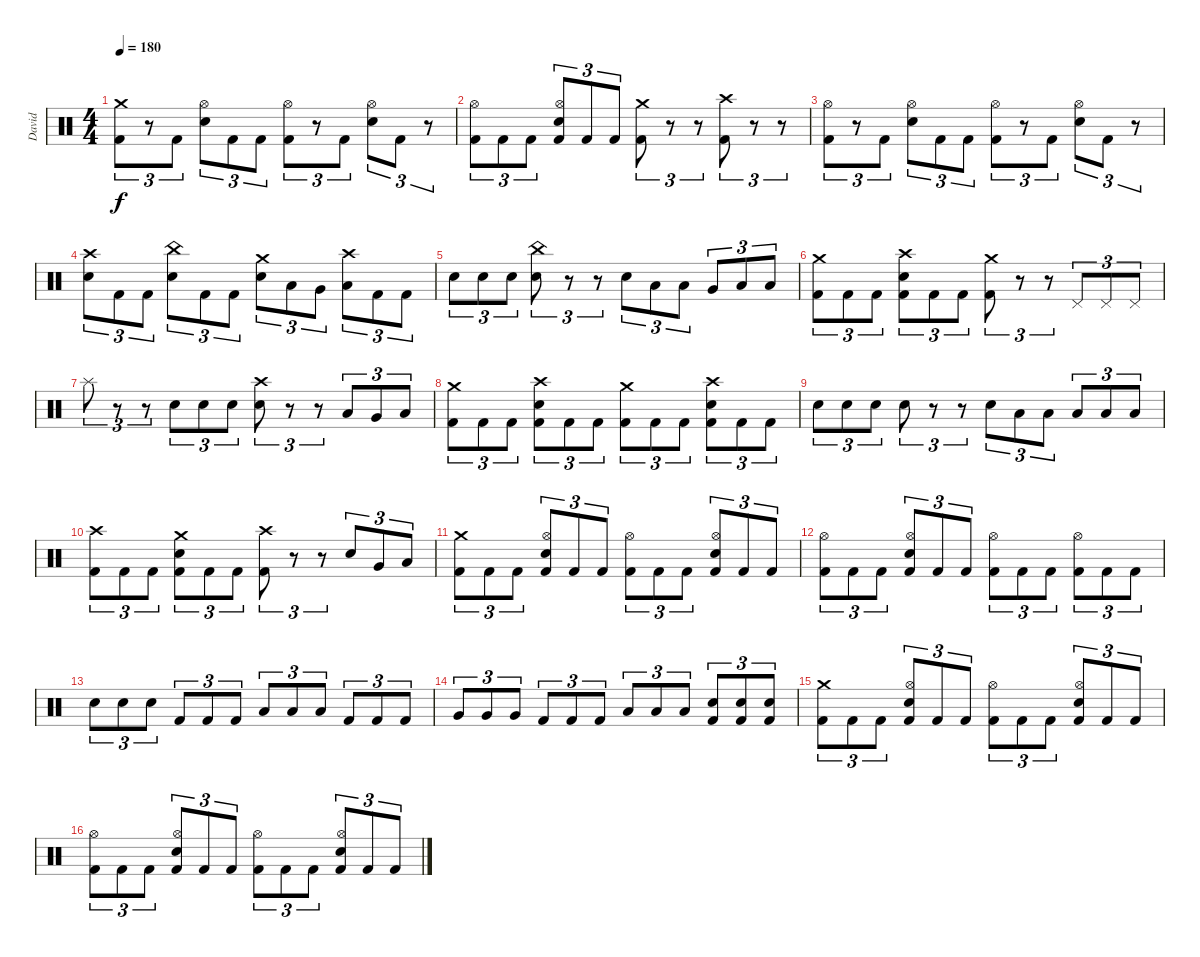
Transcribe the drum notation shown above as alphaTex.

\track ("David" "David") {instrument percussion}
\staff {score}
\articulation defaults
\ts (4 4)
\tempo 180
\clef neutral
\ks c
("Crash medium (hit)" "Kick (hit) 2").8{tu (3 2) dy f} r.8{tu (3 2)} "Kick (hit) 2".8{tu (3 2)} ("Hi-Hat (open)" "Electric Snare (hit)").8{tu (3 2)} "Kick (hit) 2".8{tu (3 2)} "Kick (hit) 2".8{tu (3 2)} ("Hi-Hat (open)" "Kick (hit) 2").8{tu (3 2)} r.8{tu (3 2)} "Kick (hit) 2".8{tu (3 2)} ("Hi-Hat (open)" "Electric Snare (hit)").8{tu (3 2)} "Kick (hit) 2".8{tu (3 2)} r.8{tu (3 2)} |
("Hi-Hat (open)" "Kick (hit) 2").8{tu (3 2)} "Kick (hit) 2".8{tu (3 2)} "Kick (hit) 2".8{tu (3 2)} ("Hi-Hat (open)" "Electric Snare (hit)" "Kick (hit) 2").8{tu (3 2)} "Kick (hit) 2".8{tu (3 2)} "Kick (hit) 2".8{tu (3 2)} ("Crash medium (hit)" "Kick (hit) 2").8{tu (3 2)} r.8{tu (3 2)} r.8{tu (3 2)} ("Crash high (hit)" "Kick (hit) 2").8{tu (3 2)} r.8{tu (3 2)} r.8{tu (3 2)} |
("Hi-Hat (open)" "Kick (hit) 2").8{tu (3 2)} r.8{tu (3 2)} "Kick (hit) 2".8{tu (3 2)} ("Hi-Hat (open)" "Electric Snare (hit)").8{tu (3 2)} "Kick (hit) 2".8{tu (3 2)} "Kick (hit) 2".8{tu (3 2)} ("Hi-Hat (open)" "Kick (hit) 2").8{tu (3 2)} r.8{tu (3 2)} "Kick (hit) 2".8{tu (3 2)} ("Hi-Hat (open)" "Electric Snare (hit)").8{tu (3 2)} "Kick (hit) 2".8{tu (3 2)} r.8{tu (3 2)} |
("Crash high (hit)" "Electric Snare (hit)").8{tu (3 2)} "Kick (hit) 2".8{tu (3 2)} "Kick (hit) 2".8{tu (3 2)} ("China (hit)" "Electric Snare (hit)").8{tu (3 2)} "Kick (hit) 2".8{tu (3 2)} "Kick (hit) 2".8{tu (3 2)} ("Crash medium (hit)" "Electric Snare (hit)").8{tu (3 2)} "Low Tom (hit)".8{tu (3 2)} "Very Low Tom (hit)".8{tu (3 2)} ("Crash high (hit)" "Low Floor Tom (hit)").8{tu (3 2)} "Kick (hit) 2".8{tu (3 2)} "Kick (hit) 2".8{tu (3 2)} |
"Electric Snare (hit)".8{tu (3 2)} "Electric Snare (hit)".8{tu (3 2)} "Electric Snare (hit)".8{tu (3 2)} ("China (hit)" "Electric Snare (hit)").8{tu (3 2)} r.8{tu (3 2)} r.8{tu (3 2)} "Electric Snare (hit)".8{tu (3 2)} "Low Tom (hit)".8{tu (3 2)} "Low Tom (hit)".8{tu (3 2)} "Very Low Tom (hit)".8{tu (3 2)} "Low Floor Tom (hit)".8{tu (3 2)} "Low Floor Tom (hit)".8{tu (3 2)} |
("Crash medium (hit)" "Kick (hit) 2").8{tu (3 2)} "Kick (hit) 2".8{tu (3 2)} "Kick (hit) 2".8{tu (3 2)} ("Crash high (hit)" "Electric Snare (hit)" "Kick (hit) 2").8{tu (3 2)} "Kick (hit) 2".8{tu (3 2)} "Kick (hit) 2".8{tu (3 2)} ("Crash medium (hit)" "Kick (hit) 2").8{tu (3 2)} r.8{tu (3 2)} r.8{tu (3 2)} "Pedal Hi-Hat (hit)".8{tu (3 2)} "Pedal Hi-Hat (hit)".8{tu (3 2)} "Pedal Hi-Hat (hit)".8{tu (3 2)} |
"Splash (hit)".8{tu (3 2)} r.8{tu (3 2)} r.8{tu (3 2)} "Electric Snare (hit)".8{tu (3 2)} "Electric Snare (hit)".8{tu (3 2)} "Electric Snare (hit)".8{tu (3 2)} ("Crash high (hit)" "Electric Snare (hit)").8{tu (3 2)} r.8{tu (3 2)} r.8{tu (3 2)} "Low Tom (hit)".8{tu (3 2)} "Very Low Tom (hit)".8{tu (3 2)} "Low Floor Tom (hit)".8{tu (3 2)} |
("Crash medium (hit)" "Kick (hit) 2").8{tu (3 2)} "Kick (hit) 2".8{tu (3 2)} "Kick (hit) 2".8{tu (3 2)} ("Crash high (hit)" "Electric Snare (hit)" "Kick (hit) 2").8{tu (3 2)} "Kick (hit) 2".8{tu (3 2)} "Kick (hit) 2".8{tu (3 2)} ("Crash medium (hit)" "Kick (hit) 2").8{tu (3 2)} "Kick (hit) 2".8{tu (3 2)} "Kick (hit) 2".8{tu (3 2)} ("Crash high (hit)" "Electric Snare (hit)" "Kick (hit) 2").8{tu (3 2)} "Kick (hit) 2".8{tu (3 2)} "Kick (hit) 2".8{tu (3 2)} |
"Electric Snare (hit)".8{tu (3 2)} "Electric Snare (hit)".8{tu (3 2)} "Electric Snare (hit)".8{tu (3 2)} "Electric Snare (hit)".8{tu (3 2)} r.8{tu (3 2)} r.8{tu (3 2)} "Electric Snare (hit)".8{tu (3 2)} "Low Tom (hit)".8{tu (3 2)} "Low Tom (hit)".8{tu (3 2)} "Low Tom (hit)".8{tu (3 2)} "Low Floor Tom (hit)".8{tu (3 2)} "Low Floor Tom (hit)".8{tu (3 2)} |
("Crash high (hit)" "Kick (hit) 2").8{tu (3 2)} "Kick (hit) 2".8{tu (3 2)} "Kick (hit) 2".8{tu (3 2)} ("Crash medium (hit)" "Electric Snare (hit)" "Kick (hit) 2").8{tu (3 2)} "Kick (hit) 2".8{tu (3 2)} "Kick (hit) 2".8{tu (3 2)} ("Crash high (hit)" "Kick (hit) 2").8{tu (3 2)} r.8{tu (3 2)} r.8{tu (3 2)} "Electric Snare (hit)".8{tu (3 2)} "Very Low Tom (hit)".8{tu (3 2)} "Low Floor Tom (hit)".8{tu (3 2)} |
("Crash medium (hit)" "Kick (hit) 2").8{tu (3 2)} "Kick (hit) 2".8{tu (3 2)} "Kick (hit) 2".8{tu (3 2)} ("Hi-Hat (open)" "Electric Snare (hit)" "Kick (hit) 2").8{tu (3 2)} "Kick (hit) 2".8{tu (3 2)} "Kick (hit) 2".8{tu (3 2)} ("Hi-Hat (open)" "Kick (hit) 2").8{tu (3 2)} "Kick (hit) 2".8{tu (3 2)} "Kick (hit) 2".8{tu (3 2)} ("Hi-Hat (open)" "Electric Snare (hit)" "Kick (hit) 2").8{tu (3 2)} "Kick (hit) 2".8{tu (3 2)} "Kick (hit) 2".8{tu (3 2)} |
("Hi-Hat (open)" "Kick (hit) 2").8{tu (3 2)} "Kick (hit) 2".8{tu (3 2)} "Kick (hit) 2".8{tu (3 2)} ("Hi-Hat (open)" "Electric Snare (hit)" "Kick (hit) 2").8{tu (3 2)} "Kick (hit) 2".8{tu (3 2)} "Kick (hit) 2".8{tu (3 2)} ("Hi-Hat (open)" "Kick (hit) 2").8{tu (3 2)} "Kick (hit) 2".8{tu (3 2)} "Kick (hit) 2".8{tu (3 2)} ("Hi-Hat (open)" "Kick (hit) 2").8{tu (3 2)} "Kick (hit) 2".8{tu (3 2)} "Kick (hit) 2".8{tu (3 2)} |
"Electric Snare (hit)".8{tu (3 2)} "Electric Snare (hit)".8{tu (3 2)} "Electric Snare (hit)".8{tu (3 2)} "Kick (hit) 2".8{tu (3 2)} "Kick (hit) 2".8{tu (3 2)} "Kick (hit) 2".8{tu (3 2)} "Low Tom (hit)".8{tu (3 2)} "Low Tom (hit)".8{tu (3 2)} "Low Tom (hit)".8{tu (3 2)} "Kick (hit) 2".8{tu (3 2)} "Kick (hit) 2".8{tu (3 2)} "Kick (hit) 2".8{tu (3 2)} |
"Very Low Tom (hit)".8{tu (3 2)} "Very Low Tom (hit)".8{tu (3 2)} "Very Low Tom (hit)".8{tu (3 2)} "Kick (hit) 2".8{tu (3 2)} "Kick (hit) 2".8{tu (3 2)} "Kick (hit) 2".8{tu (3 2)} "Low Floor Tom (hit)".8{tu (3 2)} "Low Floor Tom (hit)".8{tu (3 2)} "Low Floor Tom (hit)".8{tu (3 2)} ("Electric Snare (hit)" "Kick (hit) 2").8{tu (3 2)} ("Electric Snare (hit)" "Kick (hit) 2").8{tu (3 2)} ("Electric Snare (hit)" "Kick (hit) 2").8{tu (3 2)} |
("Crash medium (hit)" "Kick (hit) 2").8{tu (3 2)} "Kick (hit) 2".8{tu (3 2)} "Kick (hit) 2".8{tu (3 2)} ("Hi-Hat (open)" "Electric Snare (hit)" "Kick (hit) 2").8{tu (3 2)} "Kick (hit) 2".8{tu (3 2)} "Kick (hit) 2".8{tu (3 2)} ("Hi-Hat (open)" "Kick (hit) 2").8{tu (3 2)} "Kick (hit) 2".8{tu (3 2)} "Kick (hit) 2".8{tu (3 2)} ("Hi-Hat (open)" "Electric Snare (hit)" "Kick (hit) 2").8{tu (3 2)} "Kick (hit) 2".8{tu (3 2)} "Kick (hit) 2".8{tu (3 2)} |
("Hi-Hat (open)" "Kick (hit) 2").8{tu (3 2)} "Kick (hit) 2".8{tu (3 2)} "Kick (hit) 2".8{tu (3 2)} ("Hi-Hat (open)" "Electric Snare (hit)" "Kick (hit) 2").8{tu (3 2)} "Kick (hit) 2".8{tu (3 2)} "Kick (hit) 2".8{tu (3 2)} ("Hi-Hat (open)" "Kick (hit) 2").8{tu (3 2)} "Kick (hit) 2".8{tu (3 2)} "Kick (hit) 2".8{tu (3 2)} ("Hi-Hat (open)" "Electric Snare (hit)" "Kick (hit) 2").8{tu (3 2)} "Kick (hit) 2".8{tu (3 2)} "Kick (hit) 2".8{tu (3 2)}
